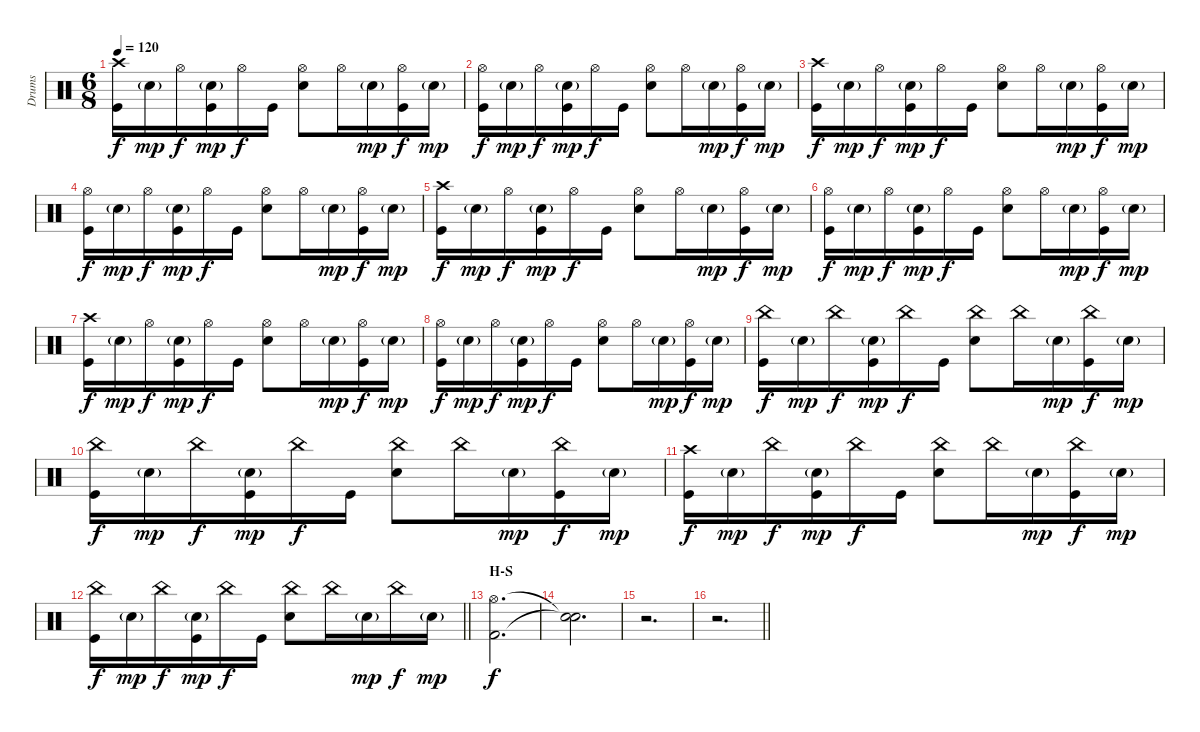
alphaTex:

\track ("Drums" "Drums") {instrument percussion}
\staff {score}
\articulation defaults
\ts (6 8)
\tempo 120
\clef neutral
\ks c
("Kick (hit)" "Crash high (hit)").16{dy f} "Electric Snare (hit)"{g}.16{dy mp} "Hi-Hat (open)".16{dy f} ("Kick (hit)" "Electric Snare (hit)"{g}).16{dy mp} "Hi-Hat (open)".16{dy f} "Kick (hit)".16 ("Electric Snare (hit)" "Hi-Hat (open)").8 "Hi-Hat (open)".16 "Electric Snare (hit)"{g}.16{dy mp} ("Kick (hit)" "Hi-Hat (open)").16{dy f} "Electric Snare (hit)"{g}.16{dy mp} |
("Kick (hit)" "Hi-Hat (open)").16{dy f} "Electric Snare (hit)"{g}.16{dy mp} "Hi-Hat (open)".16{dy f} ("Kick (hit)" "Electric Snare (hit)"{g}).16{dy mp} "Hi-Hat (open)".16{dy f} "Kick (hit)".16 ("Electric Snare (hit)" "Hi-Hat (open)").8 "Hi-Hat (open)".16 "Electric Snare (hit)"{g}.16{dy mp} ("Kick (hit)" "Hi-Hat (open)").16{dy f} "Electric Snare (hit)"{g}.16{dy mp} |
("Kick (hit)" "Crash high (hit)").16{dy f} "Electric Snare (hit)"{g}.16{dy mp} "Hi-Hat (open)".16{dy f} ("Kick (hit)" "Electric Snare (hit)"{g}).16{dy mp} "Hi-Hat (open)".16{dy f} "Kick (hit)".16 ("Electric Snare (hit)" "Hi-Hat (open)").8 "Hi-Hat (open)".16 "Electric Snare (hit)"{g}.16{dy mp} ("Kick (hit)" "Hi-Hat (open)").16{dy f} "Electric Snare (hit)"{g}.16{dy mp} |
("Kick (hit)" "Hi-Hat (open)").16{dy f} "Electric Snare (hit)"{g}.16{dy mp} "Hi-Hat (open)".16{dy f} ("Kick (hit)" "Electric Snare (hit)"{g}).16{dy mp} "Hi-Hat (open)".16{dy f} "Kick (hit)".16 ("Electric Snare (hit)" "Hi-Hat (open)").8 "Hi-Hat (open)".16 "Electric Snare (hit)"{g}.16{dy mp} ("Kick (hit)" "Hi-Hat (open)").16{dy f} "Electric Snare (hit)"{g}.16{dy mp} |
("Kick (hit)" "Crash high (hit)").16{dy f} "Electric Snare (hit)"{g}.16{dy mp} "Hi-Hat (open)".16{dy f} ("Kick (hit)" "Electric Snare (hit)"{g}).16{dy mp} "Hi-Hat (open)".16{dy f} "Kick (hit)".16 ("Electric Snare (hit)" "Hi-Hat (open)").8 "Hi-Hat (open)".16 "Electric Snare (hit)"{g}.16{dy mp} ("Kick (hit)" "Hi-Hat (open)").16{dy f} "Electric Snare (hit)"{g}.16{dy mp} |
("Kick (hit)" "Hi-Hat (open)").16{dy f} "Electric Snare (hit)"{g}.16{dy mp} "Hi-Hat (open)".16{dy f} ("Kick (hit)" "Electric Snare (hit)"{g}).16{dy mp} "Hi-Hat (open)".16{dy f} "Kick (hit)".16 ("Electric Snare (hit)" "Hi-Hat (open)").8 "Hi-Hat (open)".16 "Electric Snare (hit)"{g}.16{dy mp} ("Kick (hit)" "Hi-Hat (open)").16{dy f} "Electric Snare (hit)"{g}.16{dy mp} |
("Kick (hit)" "Crash high (hit)").16{dy f} "Electric Snare (hit)"{g}.16{dy mp} "Hi-Hat (open)".16{dy f} ("Kick (hit)" "Electric Snare (hit)"{g}).16{dy mp} "Hi-Hat (open)".16{dy f} "Kick (hit)".16 ("Electric Snare (hit)" "Hi-Hat (open)").8 "Hi-Hat (open)".16 "Electric Snare (hit)"{g}.16{dy mp} ("Kick (hit)" "Hi-Hat (open)").16{dy f} "Electric Snare (hit)"{g}.16{dy mp} |
("Kick (hit)" "Hi-Hat (open)").16{dy f} "Electric Snare (hit)"{g}.16{dy mp} "Hi-Hat (open)".16{dy f} ("Kick (hit)" "Electric Snare (hit)"{g}).16{dy mp} "Hi-Hat (open)".16{dy f} "Kick (hit)".16 ("Electric Snare (hit)" "Hi-Hat (open)").8 "Hi-Hat (open)".16 "Electric Snare (hit)"{g}.16{dy mp} ("Kick (hit)" "Hi-Hat (open)").16{dy f} "Electric Snare (hit)"{g}.16{dy mp} |
("Kick (hit)" "China (hit)").16{dy f} "Electric Snare (hit)"{g}.16{dy mp} "China (hit)".16{dy f} ("Kick (hit)" "Electric Snare (hit)"{g}).16{dy mp} "China (hit)".16{dy f} "Kick (hit)".16 ("Electric Snare (hit)" "China (hit)").8 "China (hit)".16 "Electric Snare (hit)"{g}.16{dy mp} ("Kick (hit)" "China (hit)").16{dy f} "Electric Snare (hit)"{g}.16{dy mp} |
("Kick (hit)" "China (hit)").16{dy f} "Electric Snare (hit)"{g}.16{dy mp} "China (hit)".16{dy f} ("Kick (hit)" "Electric Snare (hit)"{g}).16{dy mp} "China (hit)".16{dy f} "Kick (hit)".16 ("Electric Snare (hit)" "China (hit)").8 "China (hit)".16 "Electric Snare (hit)"{g}.16{dy mp} ("Kick (hit)" "China (hit)").16{dy f} "Electric Snare (hit)"{g}.16{dy mp} |
("Kick (hit)" "Crash high (hit)").16{dy f} "Electric Snare (hit)"{g}.16{dy mp} "China (hit)".16{dy f} ("Kick (hit)" "Electric Snare (hit)"{g}).16{dy mp} "China (hit)".16{dy f} "Kick (hit)".16 ("Electric Snare (hit)" "China (hit)").8 "China (hit)".16 "Electric Snare (hit)"{g}.16{dy mp} ("Kick (hit)" "China (hit)").16{dy f} "Electric Snare (hit)"{g}.16{dy mp} |
\barLineRight lightlight
("Kick (hit)" "China (hit)").16{dy f} "Electric Snare (hit)"{g}.16{dy mp} "China (hit)".16{dy f} ("Kick (hit)" "Electric Snare (hit)"{g}).16{dy mp} "China (hit)".16{dy f} "Kick (hit)".16 ("Electric Snare (hit)" "China (hit)").8 "China (hit)".16 "Electric Snare (hit)"{g}.16{dy mp} "China (hit)".16{dy f} "Electric Snare (hit)"{g}.16{dy mp} |
\section ("" "H-S")
("Kick (hit) 2" "Hi-Hat (open)").2{d dy f} |
("Snare (hit)"{t} "Snare (hit)"{t}).2{d} |
r.2{d} |
\barLineRight lightlight
r.2{d}
